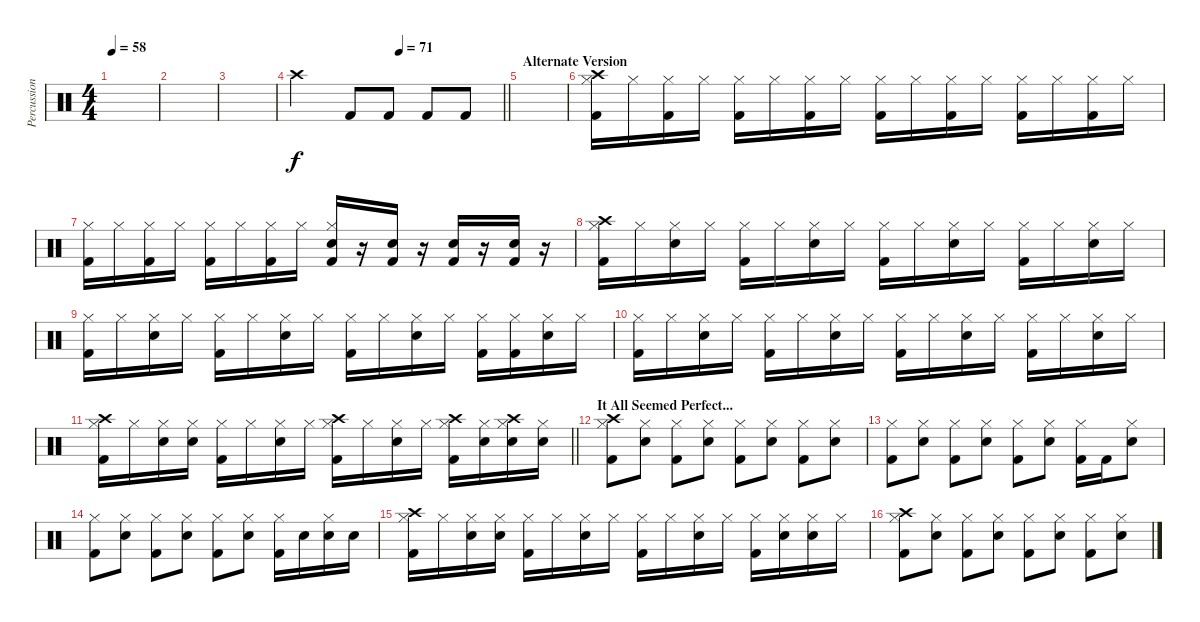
\track ("Percussion" "Percussion") {instrument percussion}
\staff {score}
\articulation defaults
\ts (4 4)
\tempo 58
\clef neutral
\ks c
|
|
|
\tempo (71 0.5)
\barLineRight lightlight "Crash high (hit)".2 "Kick (hit) 2".8 "Kick (hit) 2".8 "Kick (hit) 2".8 "Kick (hit) 2".8
|
\section ("" "Alternate Version")
|
("Crash high (hit)" "Hi-Hat (closed)" "Kick (hit) 2").16 "Hi-Hat (closed)".16 ("Hi-Hat (closed)" "Kick (hit) 2").16 "Hi-Hat (closed)".16 ("Hi-Hat (closed)" "Kick (hit) 2").16 "Hi-Hat (closed)".16 ("Hi-Hat (closed)" "Kick (hit) 2").16 "Hi-Hat (closed)".16 ("Hi-Hat (closed)" "Kick (hit) 2").16 "Hi-Hat (closed)".16 ("Hi-Hat (closed)" "Kick (hit) 2").16 "Hi-Hat (closed)".16 ("Hi-Hat (closed)" "Kick (hit) 2").16 "Hi-Hat (closed)".16 ("Hi-Hat (closed)" "Kick (hit) 2").16 "Hi-Hat (closed)".16 |
("Hi-Hat (closed)" "Kick (hit) 2").16 "Hi-Hat (closed)".16 ("Hi-Hat (closed)" "Kick (hit) 2").16 "Hi-Hat (closed)".16 ("Hi-Hat (closed)" "Kick (hit) 2").16 "Hi-Hat (closed)".16 ("Hi-Hat (closed)" "Kick (hit) 2").16 "Hi-Hat (closed)".16 ("Hi-Hat (closed)" "Kick (hit) 2" "Snare (hit) 2").16 r.16 ("Kick (hit) 2" "Snare (hit) 2").16 r.16 ("Kick (hit) 2" "Snare (hit) 2").16 r.16 ("Kick (hit) 2" "Snare (hit) 2").16 r.16 |
("Crash high (hit)" "Hi-Hat (closed)" "Kick (hit) 2").16 "Hi-Hat (closed)".16 ("Hi-Hat (closed)" "Snare (hit) 2").16 "Hi-Hat (closed)".16 ("Hi-Hat (closed)" "Kick (hit) 2").16 "Hi-Hat (closed)".16 ("Hi-Hat (closed)" "Snare (hit) 2").16 "Hi-Hat (closed)".16 ("Hi-Hat (closed)" "Kick (hit) 2").16 "Hi-Hat (closed)".16 ("Hi-Hat (closed)" "Snare (hit) 2").16 "Hi-Hat (closed)".16 ("Hi-Hat (closed)" "Kick (hit) 2").16 "Hi-Hat (closed)".16 ("Hi-Hat (closed)" "Snare (hit) 2").16 "Hi-Hat (closed)".16 |
("Hi-Hat (closed)" "Kick (hit) 2").16 "Hi-Hat (closed)".16 ("Hi-Hat (closed)" "Snare (hit) 2").16 "Hi-Hat (closed)".16 ("Hi-Hat (closed)" "Kick (hit) 2").16 "Hi-Hat (closed)".16 ("Hi-Hat (closed)" "Snare (hit) 2").16 "Hi-Hat (closed)".16 ("Hi-Hat (closed)" "Kick (hit) 2").16 "Hi-Hat (closed)".16 ("Hi-Hat (closed)" "Snare (hit) 2").16 "Hi-Hat (closed)".16 ("Hi-Hat (closed)" "Kick (hit) 2").16 ("Hi-Hat (closed)" "Kick (hit) 2").16 ("Hi-Hat (closed)" "Snare (hit) 2").16 "Hi-Hat (closed)".16 |
("Hi-Hat (closed)" "Kick (hit) 2").16 "Hi-Hat (closed)".16 ("Hi-Hat (closed)" "Snare (hit) 2").16 "Hi-Hat (closed)".16 ("Hi-Hat (closed)" "Kick (hit) 2").16 "Hi-Hat (closed)".16 ("Hi-Hat (closed)" "Snare (hit) 2").16 "Hi-Hat (closed)".16 ("Hi-Hat (closed)" "Kick (hit) 2").16 "Hi-Hat (closed)".16 ("Hi-Hat (closed)" "Snare (hit) 2").16 "Hi-Hat (closed)".16 ("Hi-Hat (closed)" "Kick (hit) 2").16 "Hi-Hat (closed)".16 ("Hi-Hat (closed)" "Snare (hit) 2").16 "Hi-Hat (closed)".16 |
\barLineRight lightlight
("Crash high (hit)" "Hi-Hat (closed)" "Kick (hit) 2").16 "Hi-Hat (closed)".16 ("Hi-Hat (closed)" "Snare (hit) 2").16 ("Hi-Hat (closed)" "Snare (hit) 2").16 ("Hi-Hat (closed)" "Kick (hit) 2").16 "Hi-Hat (closed)".16 ("Hi-Hat (closed)" "Snare (hit) 2").16 "Hi-Hat (closed)".16 ("Crash high (hit)" "Hi-Hat (closed)" "Kick (hit) 2").16 "Hi-Hat (closed)".16 ("Hi-Hat (closed)" "Snare (hit) 2").16 "Hi-Hat (closed)".16 ("Crash high (hit)" "Hi-Hat (closed)" "Kick (hit) 2").16 ("Hi-Hat (closed)" "Snare (hit) 2").16 ("Crash high (hit)" "Hi-Hat (closed)" "Snare (hit) 2").16 ("Hi-Hat (closed)" "Snare (hit) 2").16 |
\section ("" "It All Seemed Perfect...")
("Crash high (hit)" "Kick (hit) 2" "Hi-Hat (closed)").8 ("Snare (hit) 2" "Hi-Hat (closed)").8 ("Kick (hit) 2" "Hi-Hat (closed)").8 ("Snare (hit) 2" "Hi-Hat (closed)").8 ("Kick (hit) 2" "Hi-Hat (closed)").8 ("Snare (hit) 2" "Hi-Hat (closed)").8 ("Kick (hit) 2" "Hi-Hat (closed)").8 ("Snare (hit) 2" "Hi-Hat (closed)").8 |
("Kick (hit) 2" "Hi-Hat (closed)").8 ("Snare (hit) 2" "Hi-Hat (closed)").8 ("Kick (hit) 2" "Hi-Hat (closed)").8 ("Snare (hit) 2" "Hi-Hat (closed)").8 ("Kick (hit) 2" "Hi-Hat (closed)").8 ("Snare (hit) 2" "Hi-Hat (closed)").8 ("Kick (hit) 2" "Hi-Hat (closed)").16 "Kick (hit) 2".16 ("Snare (hit) 2" "Hi-Hat (closed)").8 |
("Kick (hit) 2" "Hi-Hat (closed)").8 ("Snare (hit) 2" "Hi-Hat (closed)").8 ("Kick (hit) 2" "Hi-Hat (closed)").8 ("Snare (hit) 2" "Hi-Hat (closed)").8 ("Kick (hit) 2" "Hi-Hat (closed)").8 ("Snare (hit) 2" "Hi-Hat (closed)").8 ("Kick (hit) 2" "Hi-Hat (closed)").16 "Snare (hit) 2".16 ("Snare (hit) 2" "Hi-Hat (closed)").16 "Snare (hit) 2".16 |
("Crash high (hit)" "Hi-Hat (closed)" "Kick (hit) 2").16 "Hi-Hat (closed)".16 ("Hi-Hat (closed)" "Snare (hit) 2").16 ("Hi-Hat (closed)" "Snare (hit) 2").16 ("Hi-Hat (closed)" "Kick (hit) 2").16 "Hi-Hat (closed)".16 ("Hi-Hat (closed)" "Snare (hit) 2").16 "Hi-Hat (closed)".16 ("Hi-Hat (closed)" "Kick (hit) 2").16 "Hi-Hat (closed)".16 ("Hi-Hat (closed)" "Snare (hit) 2").16 "Hi-Hat (closed)".16 ("Hi-Hat (closed)" "Kick (hit) 2").16 ("Hi-Hat (closed)" "Snare (hit) 2").16 ("Hi-Hat (closed)" "Snare (hit) 2").16 "Hi-Hat (closed)".16 |
("Crash high (hit)" "Kick (hit) 2" "Hi-Hat (closed)").8 ("Snare (hit) 2" "Hi-Hat (closed)").8 ("Kick (hit) 2" "Hi-Hat (closed)").8 ("Snare (hit) 2" "Hi-Hat (closed)").8 ("Kick (hit) 2" "Hi-Hat (closed)").8 ("Snare (hit) 2" "Hi-Hat (closed)").8 ("Kick (hit) 2" "Hi-Hat (closed)").8 ("Snare (hit) 2" "Hi-Hat (closed)").8
